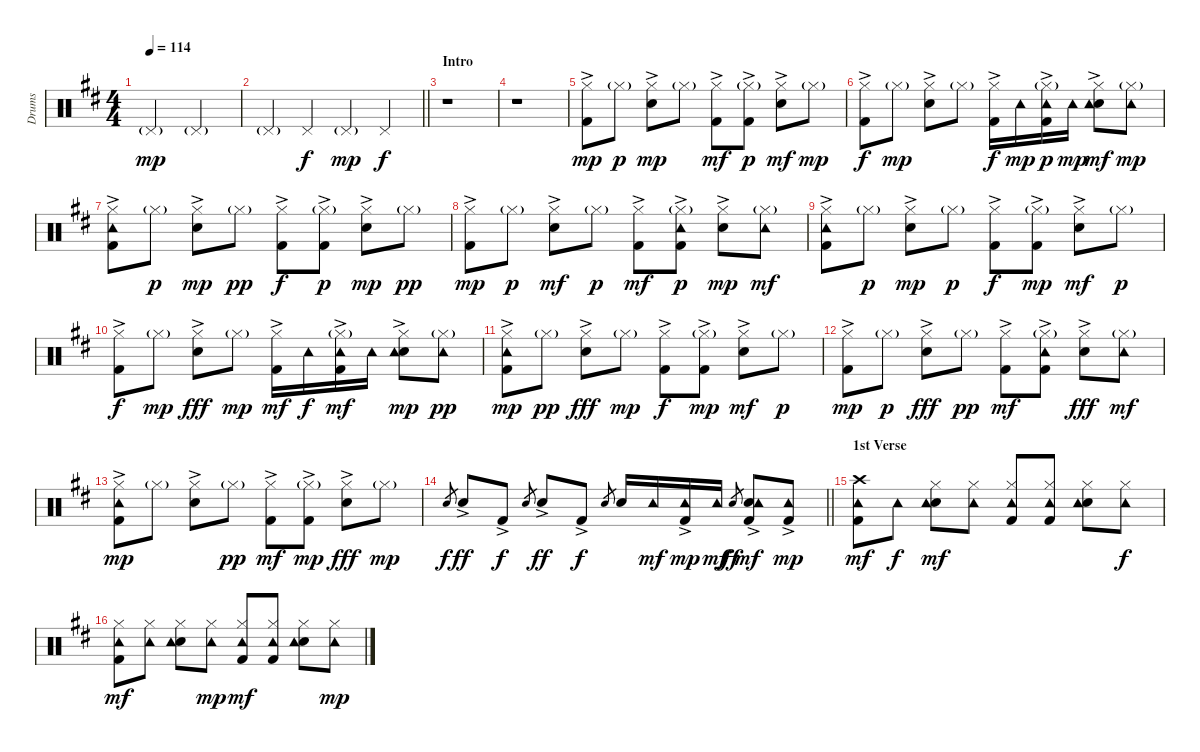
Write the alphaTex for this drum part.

\track ("Drums" "Drums") {instrument percussion}
\staff {score}
\articulation defaults
\ts (4 4)
\tempo 114
\clef neutral
\ks d "Pedal Hi-Hat (hit)"{g}.2{dy mp} "Pedal Hi-Hat (hit)"{g}.2
|
\barLineRight lightlight "Pedal Hi-Hat (hit)"{g}.4 "Pedal Hi-Hat (hit)".4{dy f} "Pedal Hi-Hat (hit)"{g}.4{dy mp} "Pedal Hi-Hat (hit)".4{dy f}
|
\section ("" "Intro")
r.1 |
r.1 |
("Kick (hit) 2"{ac} "Hi-Hat (closed)").8{dy mp} "Hi-Hat (closed)"{g}.8{dy p} ("Snare (hit) 2"{ac} "Hi-Hat (closed)").8{dy mp} "Hi-Hat (closed)"{g}.8 ("Kick (hit) 2"{ac} "Hi-Hat (closed)").8{dy mf} ("Kick (hit) 2"{ac} "Hi-Hat (closed)"{g}).8{dy p} ("Snare (hit) 2"{ac} "Hi-Hat (closed)").8{dy mf} "Hi-Hat (closed)"{g}.8{dy mp} |
("Kick (hit) 2"{ac} "Hi-Hat (closed)").8{dy f} "Hi-Hat (closed)"{g}.8{dy mp} ("Snare (hit) 2"{ac} "Hi-Hat (closed)").8 "Hi-Hat (closed)"{g}.8 ("Kick (hit) 2"{ac} "Hi-Hat (closed)").16{dy f} "Tambourine (hit)".16{dy mp} ("Kick (hit) 2"{ac} "Hi-Hat (closed)"{g} "Tambourine (hit)").16{dy p} "Tambourine (hit)".16{dy mp} ("Snare (hit) 2"{ac} "Hi-Hat (closed)" "Tambourine (hit)").8{dy mf} ("Hi-Hat (closed)"{g} "Tambourine (hit)").8{dy mp} |
("Kick (hit) 2"{ac} "Hi-Hat (closed)" "Tambourine (hit)").8 "Hi-Hat (closed)"{g}.8{dy p} ("Snare (hit) 2"{ac} "Hi-Hat (closed)").8{dy mp} "Hi-Hat (closed)"{g}.8{dy pp} ("Kick (hit) 2"{ac} "Hi-Hat (closed)").8{dy f} ("Kick (hit) 2"{ac} "Hi-Hat (closed)"{g}).8{dy p} ("Snare (hit) 2"{ac} "Hi-Hat (closed)").8{dy mp} "Hi-Hat (closed)"{g}.8{dy pp} |
("Kick (hit) 2"{ac} "Hi-Hat (closed)").8{dy mp} "Hi-Hat (closed)"{g}.8{dy p} ("Snare (hit) 2"{ac} "Hi-Hat (closed)").8{dy mf} "Hi-Hat (closed)"{g}.8{dy p} ("Kick (hit) 2"{ac} "Hi-Hat (closed)").8{dy mf} ("Kick (hit) 2"{ac} "Hi-Hat (closed)"{g} "Tambourine (hit)").8{dy p} ("Snare (hit) 2"{ac} "Hi-Hat (closed)").8{dy mp} ("Hi-Hat (closed)"{g} "Tambourine (hit)").8{dy mf} |
("Kick (hit) 2"{ac} "Hi-Hat (closed)" "Tambourine (hit)").8 "Hi-Hat (closed)"{g}.8{dy p} ("Snare (hit) 2"{ac} "Hi-Hat (closed)").8{dy mp} "Hi-Hat (closed)"{g}.8{dy p} ("Kick (hit) 2"{ac} "Hi-Hat (closed)").8{dy f} ("Kick (hit) 2"{ac} "Hi-Hat (closed)"{g}).8{dy mp} ("Snare (hit) 2"{ac} "Hi-Hat (closed)").8{dy mf} "Hi-Hat (closed)"{g}.8{dy p} |
("Kick (hit) 2"{ac} "Hi-Hat (closed)").8{dy f} "Hi-Hat (closed)"{g}.8{dy mp} ("Snare (hit) 2"{ac} "Hi-Hat (closed)").8{dy fff} "Hi-Hat (closed)"{g}.8{dy mp} ("Kick (hit) 2"{ac} "Hi-Hat (closed)").16{dy mf} "Tambourine (hit)".16{dy f} ("Kick (hit) 2"{ac} "Hi-Hat (closed)"{g} "Tambourine (hit)").16{dy mf} "Tambourine (hit)".16 ("Snare (hit) 2"{ac} "Hi-Hat (closed)" "Tambourine (hit)").8{dy mp} ("Hi-Hat (closed)"{g} "Tambourine (hit)").8{dy pp} |
("Kick (hit) 2"{ac} "Hi-Hat (closed)" "Tambourine (hit)").8{dy mp} "Hi-Hat (closed)"{g}.8{dy pp} ("Snare (hit) 2"{ac} "Hi-Hat (closed)").8{dy fff} "Hi-Hat (closed)"{g}.8{dy mp} ("Kick (hit) 2"{ac} "Hi-Hat (closed)").8{dy f} ("Kick (hit) 2"{ac} "Hi-Hat (closed)"{g}).8{dy mp} ("Snare (hit) 2"{ac} "Hi-Hat (closed)").8{dy mf} "Hi-Hat (closed)"{g}.8{dy p} |
("Kick (hit) 2"{ac} "Hi-Hat (closed)").8{dy mp} "Hi-Hat (closed)"{g}.8{dy p} ("Snare (hit) 2"{ac} "Hi-Hat (closed)").8{dy fff} "Hi-Hat (closed)"{g}.8{dy pp} ("Kick (hit) 2"{ac} "Hi-Hat (closed)").8{dy mf} ("Kick (hit) 2"{ac} "Hi-Hat (closed)"{g} "Tambourine (hit)").8 ("Snare (hit) 2"{ac} "Hi-Hat (closed)").8{dy fff} ("Hi-Hat (closed)"{g} "Tambourine (hit)").8{dy mf} |
("Kick (hit) 2"{ac} "Hi-Hat (closed)" "Tambourine (hit)").8{dy mp} "Hi-Hat (closed)"{g}.8 ("Snare (hit) 2"{ac} "Hi-Hat (closed)").8 "Hi-Hat (closed)"{g}.8{dy pp} ("Kick (hit) 2"{ac} "Hi-Hat (closed)").8{dy mf} ("Kick (hit) 2"{ac} "Hi-Hat (closed)"{g}).8{dy mp} ("Snare (hit) 2"{ac} "Hi-Hat (closed)").8{dy fff} "Hi-Hat (closed)"{g}.8{dy mp} |
\barLineRight lightlight "Snare (hit) 2".8{gr dy f} "Snare (hit) 2"{ac}.8{dy ff} "Kick (hit) 2"{ac}.8{dy f} "Snare (hit) 2".8{gr} "Snare (hit) 2"{ac}.8{dy ff} "Kick (hit) 2"{ac}.8{dy f} "Snare (hit) 2".8{gr} "Snare (hit) 2".16 "Tambourine (hit)".16{dy mf}
("Kick (hit) 2"{ac} "Tambourine (hit)").16{dy mp} "Tambourine (hit)".16{dy mf} "Snare (hit) 2".8{gr dy ff} ("Kick (hit) 2" "Snare (hit) 2"{ac} "Tambourine (hit)").8{dy mf} ("Kick (hit) 2"{ac} "Tambourine (hit)").8{dy mp} |
\section ("" "1st Verse")
("Kick (hit) 2" "Crash high (hit)" "Tambourine (hit)").8{dy mf} "Tambourine (hit)".8{dy f} ("Snare (hit) 2" "Hi-Hat (closed)" "Tambourine (hit)").8{dy mf} ("Hi-Hat (closed)" "Tambourine (hit)").8 ("Kick (hit) 2" "Hi-Hat (closed)" "Tambourine (hit)").8 ("Kick (hit) 2" "Hi-Hat (closed)" "Tambourine (hit)").8 ("Snare (hit) 2" "Hi-Hat (closed)" "Tambourine (hit)").8 ("Hi-Hat (closed)" "Tambourine (hit)").8{dy f} |
("Kick (hit) 2" "Hi-Hat (closed)" "Tambourine (hit)").8{dy mf} ("Hi-Hat (closed)" "Tambourine (hit)").8 ("Snare (hit) 2" "Hi-Hat (closed)" "Tambourine (hit)").8 ("Hi-Hat (closed)" "Tambourine (hit)").8{dy mp} ("Kick (hit) 2" "Hi-Hat (closed)" "Tambourine (hit)").8{dy mf} ("Kick (hit) 2" "Hi-Hat (closed)" "Tambourine (hit)").8 ("Snare (hit) 2" "Hi-Hat (closed)" "Tambourine (hit)").8 ("Hi-Hat (closed)" "Tambourine (hit)").8{dy mp}
